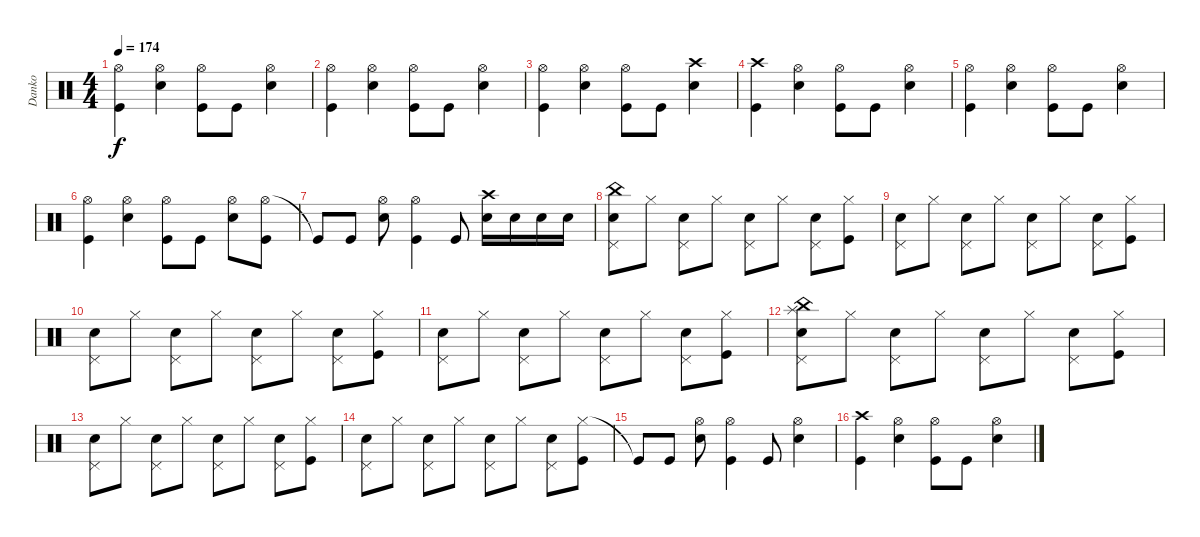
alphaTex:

\track ("Danko" "Danko") {instrument percussion}
\staff {score}
\articulation defaults
\ts (4 4)
\tempo 174
\clef neutral
\ks c
("Hi-Hat (open)" "Kick (hit)").4{dy f} ("Hi-Hat (open)" "Snare (hit) 2").4 ("Hi-Hat (open)" "Kick (hit)").8 "Kick (hit)".8 ("Hi-Hat (open)" "Snare (hit) 2").4 |
("Hi-Hat (open)" "Kick (hit)").4 ("Hi-Hat (open)" "Snare (hit) 2").4 ("Hi-Hat (open)" "Kick (hit)").8 "Kick (hit)".8 ("Hi-Hat (open)" "Snare (hit) 2").4 |
("Hi-Hat (open)" "Kick (hit)").4 ("Hi-Hat (open)" "Snare (hit) 2").4 ("Hi-Hat (open)" "Kick (hit)").8 "Kick (hit)".8 ("Crash high (hit)" "Snare (hit) 2").4 |
("Crash high (hit)" "Kick (hit)").4 ("Hi-Hat (open)" "Snare (hit) 2").4 ("Hi-Hat (open)" "Kick (hit)").8 "Kick (hit)".8 ("Hi-Hat (open)" "Snare (hit) 2").4 |
("Hi-Hat (open)" "Kick (hit)").4 ("Hi-Hat (open)" "Snare (hit) 2").4 ("Hi-Hat (open)" "Kick (hit)").8 "Kick (hit)".8 ("Hi-Hat (open)" "Snare (hit) 2").4 |
("Hi-Hat (open)" "Kick (hit)").4 ("Hi-Hat (open)" "Snare (hit) 2").4 ("Hi-Hat (open)" "Kick (hit)").8 "Kick (hit)".8 ("Hi-Hat (open)" "Snare (hit) 2").8 ("Hi-Hat (open)" "Kick (hit)").8 |
"Kick (hit)"{t}.8 "Kick (hit)".8 ("Hi-Hat (open)" "Snare (hit) 2").8 ("Hi-Hat (open)" "Kick (hit)").4 "Kick (hit)".8 ("Crash high (hit)" "Snare (hit) 2").16 "Snare (hit) 2".16 "Snare (hit) 2".16 "Snare (hit) 2".16 |
("Pedal Hi-Hat (hit)" "Snare (hit) 2" "China (hit)").8 "Hi-Hat (closed)".8 ("Pedal Hi-Hat (hit)" "Snare (hit) 2").8 "Hi-Hat (closed)".8 ("Pedal Hi-Hat (hit)" "Snare (hit) 2").8 "Hi-Hat (closed)".8 ("Pedal Hi-Hat (hit)" "Snare (hit) 2").8 ("Hi-Hat (closed)" "Kick (hit)").8 |
("Pedal Hi-Hat (hit)" "Snare (hit) 2").8 "Hi-Hat (closed)".8 ("Pedal Hi-Hat (hit)" "Snare (hit) 2").8 "Hi-Hat (closed)".8 ("Pedal Hi-Hat (hit)" "Snare (hit) 2").8 "Hi-Hat (closed)".8 ("Pedal Hi-Hat (hit)" "Snare (hit) 2").8 ("Hi-Hat (closed)" "Kick (hit)").8 |
("Pedal Hi-Hat (hit)" "Snare (hit) 2").8 "Hi-Hat (closed)".8 ("Pedal Hi-Hat (hit)" "Snare (hit) 2").8 "Hi-Hat (closed)".8 ("Pedal Hi-Hat (hit)" "Snare (hit) 2").8 "Hi-Hat (closed)".8 ("Pedal Hi-Hat (hit)" "Snare (hit) 2").8 ("Hi-Hat (closed)" "Kick (hit)").8 |
("Pedal Hi-Hat (hit)" "Snare (hit) 2").8 "Hi-Hat (closed)".8 ("Pedal Hi-Hat (hit)" "Snare (hit) 2").8 "Hi-Hat (closed)".8 ("Pedal Hi-Hat (hit)" "Snare (hit) 2").8 "Hi-Hat (closed)".8 ("Pedal Hi-Hat (hit)" "Snare (hit) 2").8 ("Hi-Hat (closed)" "Kick (hit)").8 |
("Pedal Hi-Hat (hit)" "Snare (hit) 2" "China (hit)" "Splash (hit)").8 "Hi-Hat (closed)".8 ("Pedal Hi-Hat (hit)" "Snare (hit) 2").8 "Hi-Hat (closed)".8 ("Pedal Hi-Hat (hit)" "Snare (hit) 2").8 "Hi-Hat (closed)".8 ("Pedal Hi-Hat (hit)" "Snare (hit) 2").8 ("Hi-Hat (closed)" "Kick (hit)").8 |
("Pedal Hi-Hat (hit)" "Snare (hit) 2").8 "Hi-Hat (closed)".8 ("Pedal Hi-Hat (hit)" "Snare (hit) 2").8 "Hi-Hat (closed)".8 ("Pedal Hi-Hat (hit)" "Snare (hit) 2").8 "Hi-Hat (closed)".8 ("Pedal Hi-Hat (hit)" "Snare (hit) 2").8 ("Hi-Hat (closed)" "Kick (hit)").8 |
("Pedal Hi-Hat (hit)" "Snare (hit) 2").8 "Hi-Hat (closed)".8 ("Pedal Hi-Hat (hit)" "Snare (hit) 2").8 "Hi-Hat (closed)".8 ("Pedal Hi-Hat (hit)" "Snare (hit) 2").8 "Hi-Hat (closed)".8 ("Pedal Hi-Hat (hit)" "Snare (hit) 2").8 ("Hi-Hat (closed)" "Kick (hit)").8 |
"Kick (hit)"{t}.8 "Kick (hit)".8 ("Hi-Hat (open)" "Snare (hit) 2").8 ("Hi-Hat (open)" "Kick (hit)").4 "Kick (hit)".8 ("Snare (hit) 2" "Hi-Hat (open)").4 |
("Crash high (hit)" "Kick (hit)").4 ("Hi-Hat (open)" "Snare (hit) 2").4 ("Hi-Hat (open)" "Kick (hit)").8 "Kick (hit)".8 ("Hi-Hat (open)" "Snare (hit) 2").4
